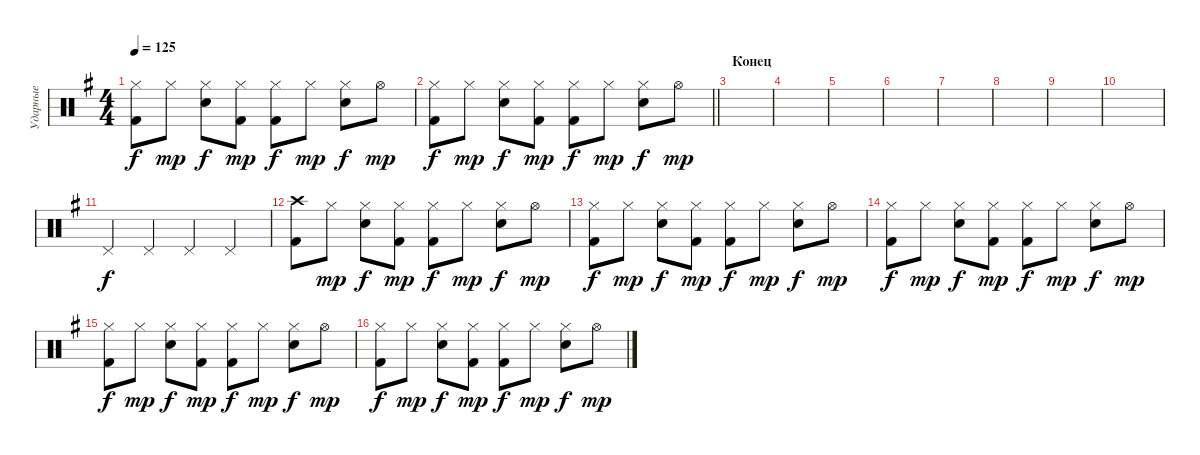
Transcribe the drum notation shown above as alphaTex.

\track ("Ударные" "Ударные") {instrument percussion}
\staff {score}
\articulation defaults
\ts (4 4)
\tempo 125
\clef neutral
\ks eminor
("Hi-Hat (closed)" "Kick (hit) 2").8{dy f} "Hi-Hat (closed)".8{dy mp} ("Hi-Hat (closed)" "Snare (hit) 2").8{dy f} ("Hi-Hat (closed)" "Kick (hit) 2").8{dy mp} ("Hi-Hat (closed)" "Kick (hit) 2").8{dy f} "Hi-Hat (closed)".8{dy mp} ("Hi-Hat (closed)" "Snare (hit) 2").8{dy f} "Hi-Hat (open)".8{dy mp} |
\barLineRight lightlight
("Hi-Hat (closed)" "Kick (hit) 2").8{dy f} "Hi-Hat (closed)".8{dy mp} ("Hi-Hat (closed)" "Snare (hit) 2").8{dy f} ("Hi-Hat (closed)" "Kick (hit) 2").8{dy mp} ("Hi-Hat (closed)" "Kick (hit) 2").8{dy f} "Hi-Hat (closed)".8{dy mp} ("Hi-Hat (closed)" "Snare (hit) 2").8{dy f} "Hi-Hat (open)".8{dy mp} |
\section ("" "Конец")
|
|
|
|
|
|
|
|
"Pedal Hi-Hat (hit)".4{dy f} "Pedal Hi-Hat (hit)".4 "Pedal Hi-Hat (hit)".4 "Pedal Hi-Hat (hit)".4 |
("Crash high (hit)" "Kick (hit) 2").8 "Hi-Hat (closed)".8{dy mp} ("Hi-Hat (closed)" "Snare (hit) 2").8{dy f} ("Hi-Hat (closed)" "Kick (hit) 2").8{dy mp} ("Hi-Hat (closed)" "Kick (hit) 2").8{dy f} "Hi-Hat (closed)".8{dy mp} ("Hi-Hat (closed)" "Snare (hit) 2").8{dy f} "Hi-Hat (open)".8{dy mp} |
("Hi-Hat (closed)" "Kick (hit) 2").8{dy f} "Hi-Hat (closed)".8{dy mp} ("Hi-Hat (closed)" "Snare (hit) 2").8{dy f} ("Hi-Hat (closed)" "Kick (hit) 2").8{dy mp} ("Hi-Hat (closed)" "Kick (hit) 2").8{dy f} "Hi-Hat (closed)".8{dy mp} ("Hi-Hat (closed)" "Snare (hit) 2").8{dy f} "Hi-Hat (open)".8{dy mp} |
("Hi-Hat (closed)" "Kick (hit) 2").8{dy f} "Hi-Hat (closed)".8{dy mp} ("Hi-Hat (closed)" "Snare (hit) 2").8{dy f} ("Hi-Hat (closed)" "Kick (hit) 2").8{dy mp} ("Hi-Hat (closed)" "Kick (hit) 2").8{dy f} "Hi-Hat (closed)".8{dy mp} ("Hi-Hat (closed)" "Snare (hit) 2").8{dy f} "Hi-Hat (open)".8{dy mp} |
("Hi-Hat (closed)" "Kick (hit) 2").8{dy f} "Hi-Hat (closed)".8{dy mp} ("Hi-Hat (closed)" "Snare (hit) 2").8{dy f} ("Hi-Hat (closed)" "Kick (hit) 2").8{dy mp} ("Hi-Hat (closed)" "Kick (hit) 2").8{dy f} "Hi-Hat (closed)".8{dy mp} ("Hi-Hat (closed)" "Snare (hit) 2").8{dy f} "Hi-Hat (open)".8{dy mp} |
("Hi-Hat (closed)" "Kick (hit) 2").8{dy f} "Hi-Hat (closed)".8{dy mp} ("Hi-Hat (closed)" "Snare (hit) 2").8{dy f} ("Hi-Hat (closed)" "Kick (hit) 2").8{dy mp} ("Hi-Hat (closed)" "Kick (hit) 2").8{dy f} "Hi-Hat (closed)".8{dy mp} ("Hi-Hat (closed)" "Snare (hit) 2").8{dy f} "Hi-Hat (open)".8{dy mp}
